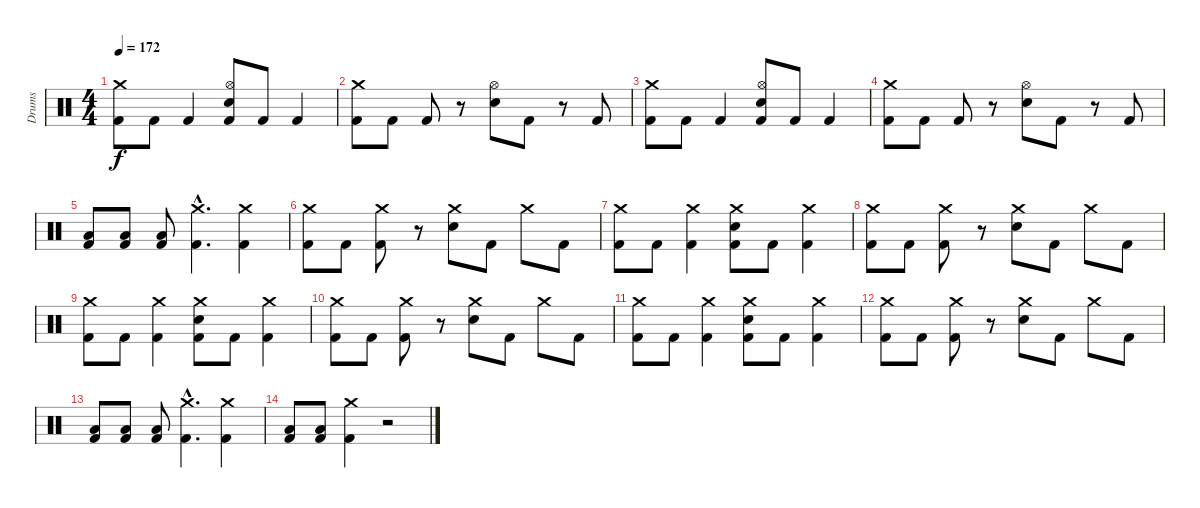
\track ("Drums" "Drums") {instrument percussion}
\staff {score}
\articulation defaults
\ts (4 4)
\tempo 172
\clef neutral
\ks c
("Crash medium (hit)" "Kick (hit) 2").8{dy f} "Kick (hit) 2".8 "Kick (hit) 2".4 ("Hi-Hat (open)" "Snare (hit) 2" "Kick (hit) 2").8 "Kick (hit) 2".8 "Kick (hit) 2".4 |
("Crash medium (hit)" "Kick (hit) 2").8 "Kick (hit) 2".8 "Kick (hit) 2".8 r.8 ("Hi-Hat (open)" "Snare (hit) 2").8 "Kick (hit) 2".8 r.8 "Kick (hit) 2".8 |
("Crash medium (hit)" "Kick (hit) 2").8 "Kick (hit) 2".8 "Kick (hit) 2".4 ("Hi-Hat (open)" "Snare (hit) 2" "Kick (hit) 2").8 "Kick (hit) 2".8 "Kick (hit) 2".4 |
("Crash medium (hit)" "Kick (hit) 2").8 "Kick (hit) 2".8 "Kick (hit) 2".8 r.8 ("Hi-Hat (open)" "Snare (hit) 2").8 "Kick (hit) 2".8 r.8 "Kick (hit) 2".8 |
("Low Tom (hit)" "Kick (hit) 2").8 ("Low Tom (hit)" "Kick (hit) 2").8 ("Low Tom (hit)" "Kick (hit) 2").8 ("Crash medium (hit)"{hac} "Kick (hit) 2"{hac}).4{d} ("Crash medium (hit)" "Kick (hit) 2").4 |
("Crash medium (hit)" "Kick (hit) 2").8 "Kick (hit) 2".8 ("Crash medium (hit)" "Kick (hit) 2").8 r.8 ("Crash medium (hit)" "Snare (hit) 2").8 "Kick (hit) 2".8 "Crash medium (hit)".8 "Kick (hit) 2".8 |
("Crash medium (hit)" "Kick (hit) 2").8 "Kick (hit) 2".8 ("Crash medium (hit)" "Kick (hit) 2").4 ("Crash medium (hit)" "Snare (hit) 2" "Kick (hit) 2").8 "Kick (hit) 2".8 ("Crash medium (hit)" "Kick (hit) 2").4 |
("Crash medium (hit)" "Kick (hit) 2").8 "Kick (hit) 2".8 ("Crash medium (hit)" "Kick (hit) 2").8 r.8 ("Crash medium (hit)" "Snare (hit) 2").8 "Kick (hit) 2".8 "Crash medium (hit)".8 "Kick (hit) 2".8 |
("Crash medium (hit)" "Kick (hit) 2").8 "Kick (hit) 2".8 ("Crash medium (hit)" "Kick (hit) 2").4 ("Crash medium (hit)" "Snare (hit) 2" "Kick (hit) 2").8 "Kick (hit) 2".8 ("Crash medium (hit)" "Kick (hit) 2").4 |
("Crash medium (hit)" "Kick (hit) 2").8 "Kick (hit) 2".8 ("Crash medium (hit)" "Kick (hit) 2").8 r.8 ("Crash medium (hit)" "Snare (hit) 2").8 "Kick (hit) 2".8 "Crash medium (hit)".8 "Kick (hit) 2".8 |
("Crash medium (hit)" "Kick (hit) 2").8 "Kick (hit) 2".8 ("Crash medium (hit)" "Kick (hit) 2").4 ("Crash medium (hit)" "Snare (hit) 2" "Kick (hit) 2").8 "Kick (hit) 2".8 ("Crash medium (hit)" "Kick (hit) 2").4 |
("Crash medium (hit)" "Kick (hit) 2").8 "Kick (hit) 2".8 ("Crash medium (hit)" "Kick (hit) 2").8 r.8 ("Crash medium (hit)" "Snare (hit) 2").8 "Kick (hit) 2".8 "Crash medium (hit)".8 "Kick (hit) 2".8 |
("Low Tom (hit)" "Kick (hit) 2").8 ("Low Tom (hit)" "Kick (hit) 2").8 ("Low Tom (hit)" "Kick (hit) 2").8 ("Crash medium (hit)"{hac} "Kick (hit) 2"{hac}).4{d} ("Crash medium (hit)" "Kick (hit) 2").4 |
("Low Tom (hit)" "Kick (hit) 2").8 ("Low Tom (hit)" "Kick (hit) 2").8 ("Crash medium (hit)" "Kick (hit) 2").4 r.2
